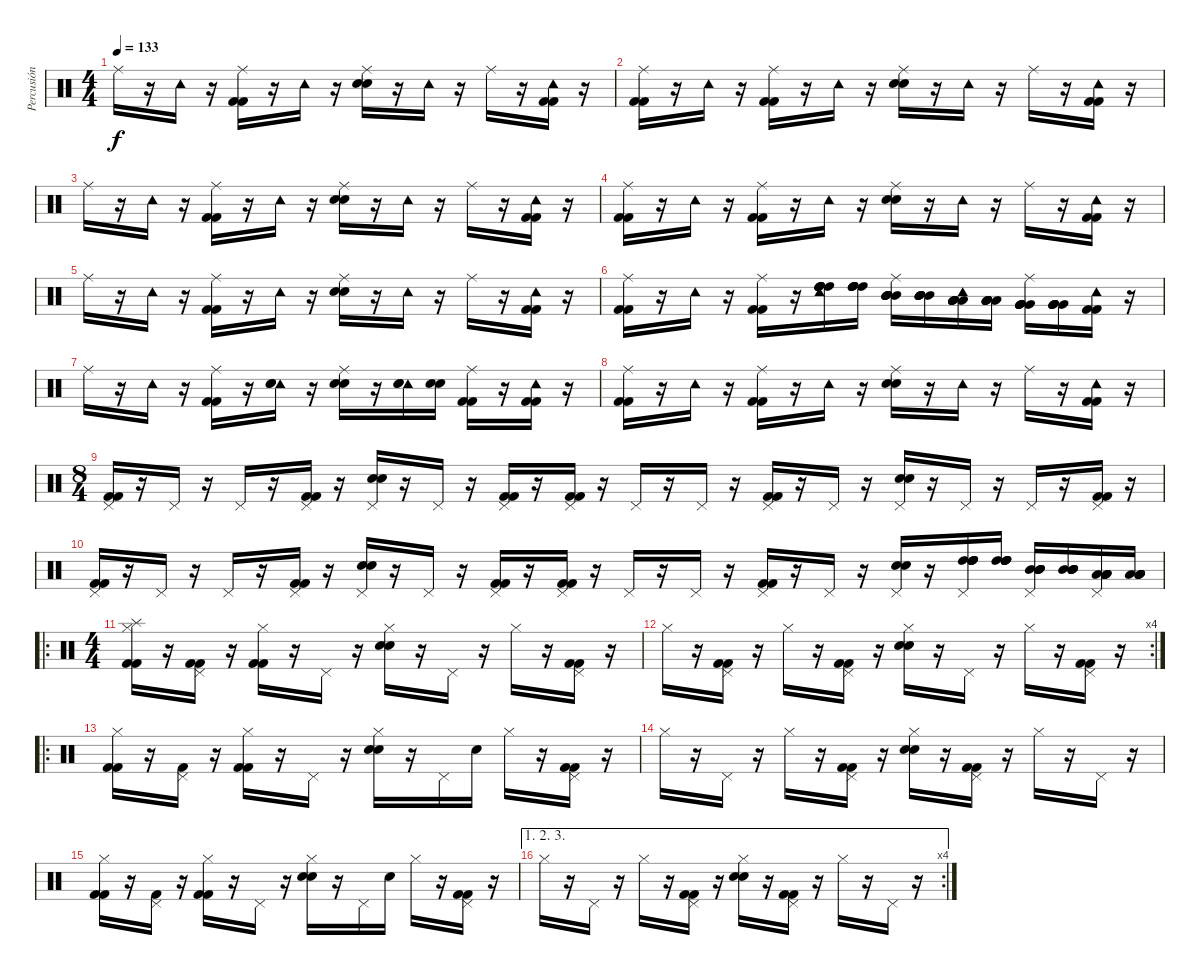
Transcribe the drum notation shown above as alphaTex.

\track ("Percusión" "Percusión") {instrument percussion}
\staff {score}
\articulation defaults
\ts (4 4)
\tempo 133
\clef neutral
\ks c "Ride (middle)".16{dy f}
r.16 "Tambourine (hit)".16 r.16 ("Ride (middle)" "Kick (hit) 2" "Kick (hit) 2").16 r.16 "Tambourine (hit)".16 r.16 ("Ride (middle)" "Electric Snare (hit)" "Electric Snare (hit)").16 r.16 "Tambourine (hit)".16 r.16 "Ride (middle)".16 r.16 ("Tambourine (hit)" "Kick (hit) 2" "Kick (hit) 2").16 r.16 |
("Ride (middle)" "Kick (hit) 2" "Kick (hit) 2").16 r.16 "Tambourine (hit)".16 r.16 ("Ride (middle)" "Kick (hit) 2" "Kick (hit) 2").16 r.16 "Tambourine (hit)".16 r.16 ("Ride (middle)" "Electric Snare (hit)" "Electric Snare (hit)").16 r.16 "Tambourine (hit)".16 r.16 "Ride (middle)".16 r.16 ("Tambourine (hit)" "Kick (hit) 2" "Kick (hit) 2").16 r.16 |
"Ride (middle)".16 r.16 "Tambourine (hit)".16 r.16 ("Ride (middle)" "Kick (hit) 2" "Kick (hit) 2").16 r.16 "Tambourine (hit)".16 r.16 ("Ride (middle)" "Electric Snare (hit)" "Electric Snare (hit)").16 r.16 "Tambourine (hit)".16 r.16 "Ride (middle)".16 r.16 ("Tambourine (hit)" "Kick (hit) 2" "Kick (hit) 2").16 r.16 |
("Ride (middle)" "Kick (hit) 2" "Kick (hit) 2").16 r.16 "Tambourine (hit)".16 r.16 ("Ride (middle)" "Kick (hit) 2" "Kick (hit) 2").16 r.16 "Tambourine (hit)".16 r.16 ("Ride (middle)" "Electric Snare (hit)" "Electric Snare (hit)").16 r.16 "Tambourine (hit)".16 r.16 "Ride (middle)".16 r.16 ("Tambourine (hit)" "Kick (hit) 2" "Kick (hit) 2").16 r.16 |
"Ride (middle)".16 r.16 "Tambourine (hit)".16 r.16 ("Ride (middle)" "Kick (hit) 2" "Kick (hit) 2").16 r.16 "Tambourine (hit)".16 r.16 ("Ride (middle)" "Electric Snare (hit)" "Electric Snare (hit)").16 r.16 "Tambourine (hit)".16 r.16 "Ride (middle)".16 r.16 ("Tambourine (hit)" "Kick (hit) 2" "Kick (hit) 2").16 r.16 |
("Ride (middle)" "Kick (hit) 2" "Kick (hit) 2").16 r.16 "Tambourine (hit)".16 r.16 ("Ride (middle)" "Kick (hit) 2" "Kick (hit) 2").16 r.16 ("Tambourine (hit)" "High Tom (hit)" "High Tom (hit)" "High Tom (hit)" "High Tom (hit)" "High Tom (hit)").16 ("High Tom (hit)" "High Tom (hit)" "High Tom (hit)" "High Tom (hit)" "High Tom (hit)").16 ("Ride (middle)" "Mid Tom (hit)" "Mid Tom (hit)" "Mid Tom (hit)" "Mid Tom (hit)" "Mid Tom (hit)").16 ("Mid Tom (hit)" "Mid Tom (hit)" "Mid Tom (hit)" "Mid Tom (hit)" "Mid Tom (hit)").16 ("Tambourine (hit)" "Low Tom (hit)" "Low Tom (hit)" "Low Tom (hit)" "Low Tom (hit)" "Low Tom (hit)").16 ("Low Tom (hit)" "Low Tom (hit)" "Low Tom (hit)" "Low Tom (hit)" "Low Tom (hit)").16 ("Ride (middle)" "Very Low Tom (hit)" "Very Low Tom (hit)" "Very Low Tom (hit)" "Very Low Tom (hit)" "Very Low Tom (hit)").16 ("Very Low Tom (hit)" "Very Low Tom (hit)" "Very Low Tom (hit)" "Very Low Tom (hit)" "Very Low Tom (hit)").16 ("Tambourine (hit)" "Kick (hit) 2" "Kick (hit) 2").16 r.16 |
"Ride (middle)".16 r.16 "Tambourine (hit)".16 r.16 ("Ride (middle)" "Kick (hit) 2" "Kick (hit) 2").16 r.16 ("Tambourine (hit)" "Electric Snare (hit)" "Electric Snare (hit)").16 r.16 ("Ride (middle)" "Electric Snare (hit)" "Electric Snare (hit)").16 r.16 ("Tambourine (hit)" "Electric Snare (hit)" "Electric Snare (hit)").16 ("Electric Snare (hit)" "Electric Snare (hit)").16 ("Ride (middle)" "Kick (hit) 2" "Kick (hit) 2").16 r.16 ("Tambourine (hit)" "Kick (hit) 2" "Kick (hit) 2").16 r.16 |
("Ride (middle)" "Kick (hit) 2" "Kick (hit) 2").16 r.16 "Tambourine (hit)".16 r.16 ("Ride (middle)" "Kick (hit) 2" "Kick (hit) 2").16 r.16 "Tambourine (hit)".16 r.16 ("Ride (middle)" "Electric Snare (hit)" "Electric Snare (hit)").16 r.16 "Tambourine (hit)".16 r.16 "Ride (middle)".16 r.16 ("Tambourine (hit)" "Kick (hit) 2" "Kick (hit) 2").16 r.16 |
\ts (8 4)
("Pedal Hi-Hat (hit)" "Kick (hit) 2" "Kick (hit) 2").16 r.16 "Pedal Hi-Hat (hit)".16 r.16 "Pedal Hi-Hat (hit)".16 r.16 ("Pedal Hi-Hat (hit)" "Kick (hit) 2" "Kick (hit) 2").16 r.16 ("Pedal Hi-Hat (hit)" "Electric Snare (hit)" "Electric Snare (hit)").16 r.16 "Pedal Hi-Hat (hit)".16 r.16 ("Pedal Hi-Hat (hit)" "Kick (hit) 2" "Kick (hit) 2").16 r.16 ("Pedal Hi-Hat (hit)" "Kick (hit) 2" "Kick (hit) 2").16 r.16 "Pedal Hi-Hat (hit)".16 r.16 "Pedal Hi-Hat (hit)".16 r.16 ("Pedal Hi-Hat (hit)" "Kick (hit) 2" "Kick (hit) 2").16 r.16 "Pedal Hi-Hat (hit)".16 r.16 ("Pedal Hi-Hat (hit)" "Electric Snare (hit)" "Electric Snare (hit)").16 r.16 "Pedal Hi-Hat (hit)".16 r.16 "Pedal Hi-Hat (hit)".16 r.16 ("Pedal Hi-Hat (hit)" "Kick (hit) 2" "Kick (hit) 2").16 r.16 |
("Pedal Hi-Hat (hit)" "Kick (hit) 2" "Kick (hit) 2").16 r.16 "Pedal Hi-Hat (hit)".16 r.16 "Pedal Hi-Hat (hit)".16 r.16 ("Pedal Hi-Hat (hit)" "Kick (hit) 2" "Kick (hit) 2").16 r.16 ("Pedal Hi-Hat (hit)" "Electric Snare (hit)" "Electric Snare (hit)").16 r.16 "Pedal Hi-Hat (hit)".16 r.16 ("Pedal Hi-Hat (hit)" "Kick (hit) 2" "Kick (hit) 2").16 r.16 ("Pedal Hi-Hat (hit)" "Kick (hit) 2" "Kick (hit) 2").16 r.16 "Pedal Hi-Hat (hit)".16 r.16 "Pedal Hi-Hat (hit)".16 r.16 ("Pedal Hi-Hat (hit)" "Kick (hit) 2" "Kick (hit) 2").16 r.16 "Pedal Hi-Hat (hit)".16 r.16 ("Pedal Hi-Hat (hit)" "Electric Snare (hit)" "Electric Snare (hit)").16 r.16 ("Pedal Hi-Hat (hit)" "High Tom (hit)" "High Tom (hit)" "High Tom (hit)" "High Tom (hit)" "High Tom (hit)").16 ("High Tom (hit)" "High Tom (hit)" "High Tom (hit)" "High Tom (hit)" "High Tom (hit)").16 ("Pedal Hi-Hat (hit)" "Mid Tom (hit)" "Mid Tom (hit)" "Mid Tom (hit)" "Mid Tom (hit)" "Mid Tom (hit)").16 ("Mid Tom (hit)" "Mid Tom (hit)" "Mid Tom (hit)" "Mid Tom (hit)" "Mid Tom (hit)").16 ("Pedal Hi-Hat (hit)" "Low Tom (hit)" "Low Tom (hit)" "Low Tom (hit)" "Low Tom (hit)" "Low Tom (hit)").16 ("Low Tom (hit)" "Low Tom (hit)" "Low Tom (hit)" "Low Tom (hit)" "Low Tom (hit)").16 |
\ro
\ts (4 4)
("Hi-Hat (closed)" "Splash (hit)" "Kick (hit) 2" "Kick (hit) 2").16 r.16 ("Pedal Hi-Hat (hit)" "Kick (hit) 2" "Kick (hit) 2").16 r.16 ("Hi-Hat (closed)" "Kick (hit) 2" "Kick (hit) 2").16 r.16 "Pedal Hi-Hat (hit)".16 r.16 ("Hi-Hat (closed)" "Electric Snare (hit)" "Electric Snare (hit)").16 r.16 "Pedal Hi-Hat (hit)".16 r.16 "Hi-Hat (closed)".16 r.16 ("Pedal Hi-Hat (hit)" "Kick (hit) 2" "Kick (hit) 2").16 r.16 |
\rc 4 "Hi-Hat (closed)".16
r.16 ("Pedal Hi-Hat (hit)" "Kick (hit) 2" "Kick (hit) 2").16 r.16 "Hi-Hat (closed)".16 r.16 ("Pedal Hi-Hat (hit)" "Kick (hit) 2" "Kick (hit) 2").16 r.16 ("Hi-Hat (closed)" "Electric Snare (hit)" "Electric Snare (hit)").16 r.16 "Pedal Hi-Hat (hit)".16 r.16 "Hi-Hat (closed)".16 r.16 ("Pedal Hi-Hat (hit)" "Kick (hit) 2" "Kick (hit) 2").16 r.16 |
\ro
("Hi-Hat (closed)" "Kick (hit) 2" "Kick (hit) 2").16 r.16 ("Pedal Hi-Hat (hit)" "Kick (hit) 2").16 r.16 ("Hi-Hat (closed)" "Kick (hit) 2" "Kick (hit) 2").16 r.16 "Pedal Hi-Hat (hit)".16 r.16 ("Hi-Hat (closed)" "Electric Snare (hit)" "Electric Snare (hit)").16 r.16 "Pedal Hi-Hat (hit)".16 "Electric Snare (hit)".16 "Hi-Hat (closed)".16 r.16 ("Pedal Hi-Hat (hit)" "Kick (hit) 2" "Kick (hit) 2").16 r.16 |
"Hi-Hat (closed)".16 r.16 "Pedal Hi-Hat (hit)".16 r.16 "Hi-Hat (closed)".16 r.16 ("Pedal Hi-Hat (hit)" "Kick (hit) 2" "Kick (hit) 2").16 r.16 ("Hi-Hat (closed)" "Electric Snare (hit)" "Electric Snare (hit)").16 r.16 ("Pedal Hi-Hat (hit)" "Kick (hit) 2" "Kick (hit) 2").16 r.16 "Hi-Hat (closed)".16 r.16 "Pedal Hi-Hat (hit)".16 r.16 |
("Hi-Hat (closed)" "Kick (hit) 2" "Kick (hit) 2").16 r.16 ("Pedal Hi-Hat (hit)" "Kick (hit) 2").16 r.16 ("Hi-Hat (closed)" "Kick (hit) 2" "Kick (hit) 2").16 r.16 "Pedal Hi-Hat (hit)".16 r.16 ("Hi-Hat (closed)" "Electric Snare (hit)" "Electric Snare (hit)").16 r.16 "Pedal Hi-Hat (hit)".16 "Electric Snare (hit)".16 "Hi-Hat (closed)".16 r.16 ("Pedal Hi-Hat (hit)" "Kick (hit) 2" "Kick (hit) 2").16 r.16 |
\ae (1 2 3)
\rc 4 "Hi-Hat (closed)".16
r.16 "Pedal Hi-Hat (hit)".16 r.16 "Hi-Hat (closed)".16 r.16 ("Pedal Hi-Hat (hit)" "Kick (hit) 2" "Kick (hit) 2").16 r.16 ("Hi-Hat (closed)" "Electric Snare (hit)" "Electric Snare (hit)").16 r.16 ("Pedal Hi-Hat (hit)" "Kick (hit) 2" "Kick (hit) 2").16 r.16 "Hi-Hat (closed)".16 r.16 "Pedal Hi-Hat (hit)".16 r.16
